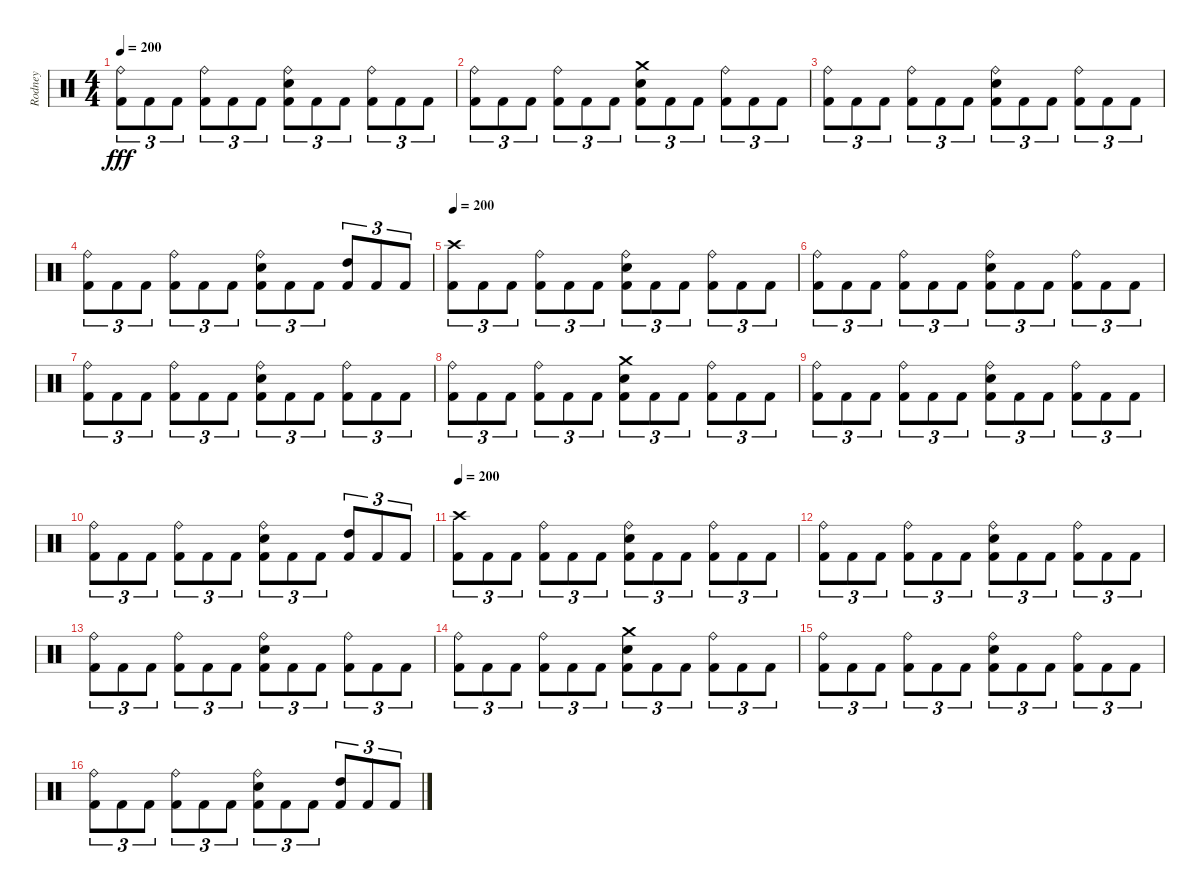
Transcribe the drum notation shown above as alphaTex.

\track ("Rodney" "Rodney") {instrument percussion}
\staff {score}
\articulation defaults
\ts (4 4)
\tempo 200
\clef neutral
\ks c
("Ride (bell)" "Kick (hit) 2").8{tu (3 2) dy fff} "Kick (hit) 2".8{tu (3 2)} "Kick (hit) 2".8{tu (3 2)} ("Ride (bell)" "Kick (hit) 2").8{tu (3 2)} "Kick (hit) 2".8{tu (3 2)} "Kick (hit) 2".8{tu (3 2)} ("Ride (bell)" "Snare (hit) 2" "Kick (hit) 2").8{tu (3 2)} "Kick (hit) 2".8{tu (3 2)} "Kick (hit) 2".8{tu (3 2)} ("Ride (bell)" "Kick (hit) 2").8{tu (3 2)} "Kick (hit) 2".8{tu (3 2)} "Kick (hit) 2".8{tu (3 2)} |
("Ride (bell)" "Kick (hit) 2").8{tu (3 2)} "Kick (hit) 2".8{tu (3 2)} "Kick (hit) 2".8{tu (3 2)} ("Ride (bell)" "Kick (hit) 2").8{tu (3 2)} "Kick (hit) 2".8{tu (3 2)} "Kick (hit) 2".8{tu (3 2)} ("Crash medium (hit)" "Snare (hit) 2" "Kick (hit) 2").8{tu (3 2)} "Kick (hit) 2".8{tu (3 2)} "Kick (hit) 2".8{tu (3 2)} ("Ride (bell)" "Kick (hit) 2").8{tu (3 2)} "Kick (hit) 2".8{tu (3 2)} "Kick (hit) 2".8{tu (3 2)} |
("Ride (bell)" "Kick (hit) 2").8{tu (3 2)} "Kick (hit) 2".8{tu (3 2)} "Kick (hit) 2".8{tu (3 2)} ("Ride (bell)" "Kick (hit) 2").8{tu (3 2)} "Kick (hit) 2".8{tu (3 2)} "Kick (hit) 2".8{tu (3 2)} ("Ride (bell)" "Snare (hit) 2" "Kick (hit) 2").8{tu (3 2)} "Kick (hit) 2".8{tu (3 2)} "Kick (hit) 2".8{tu (3 2)} ("Ride (bell)" "Kick (hit) 2").8{tu (3 2)} "Kick (hit) 2".8{tu (3 2)} "Kick (hit) 2".8{tu (3 2)} |
("Ride (bell)" "Kick (hit) 2").8{tu (3 2)} "Kick (hit) 2".8{tu (3 2)} "Kick (hit) 2".8{tu (3 2)} ("Ride (bell)" "Kick (hit) 2").8{tu (3 2)} "Kick (hit) 2".8{tu (3 2)} "Kick (hit) 2".8{tu (3 2)} ("Ride (bell)" "Snare (hit) 2" "Kick (hit) 2").8{tu (3 2)} "Kick (hit) 2".8{tu (3 2)} "Kick (hit) 2".8{tu (3 2)} ("High Tom (hit)" "Kick (hit) 2").8{tu (3 2)} "Kick (hit) 2".8{tu (3 2)} "Kick (hit) 2".8{tu (3 2)} |
\tempo 200
("Crash high (hit)" "Kick (hit) 2").8{tu (3 2)} "Kick (hit) 2".8{tu (3 2)} "Kick (hit) 2".8{tu (3 2)} ("Ride (bell)" "Kick (hit) 2").8{tu (3 2)} "Kick (hit) 2".8{tu (3 2)} "Kick (hit) 2".8{tu (3 2)} ("Ride (bell)" "Snare (hit) 2" "Kick (hit) 2").8{tu (3 2)} "Kick (hit) 2".8{tu (3 2)} "Kick (hit) 2".8{tu (3 2)} ("Ride (bell)" "Kick (hit) 2").8{tu (3 2)} "Kick (hit) 2".8{tu (3 2)} "Kick (hit) 2".8{tu (3 2)} |
("Ride (bell)" "Kick (hit) 2").8{tu (3 2)} "Kick (hit) 2".8{tu (3 2)} "Kick (hit) 2".8{tu (3 2)} ("Ride (bell)" "Kick (hit) 2").8{tu (3 2)} "Kick (hit) 2".8{tu (3 2)} "Kick (hit) 2".8{tu (3 2)} ("Ride (bell)" "Snare (hit) 2" "Kick (hit) 2").8{tu (3 2)} "Kick (hit) 2".8{tu (3 2)} "Kick (hit) 2".8{tu (3 2)} ("Ride (bell)" "Kick (hit) 2").8{tu (3 2)} "Kick (hit) 2".8{tu (3 2)} "Kick (hit) 2".8{tu (3 2)} |
("Ride (bell)" "Kick (hit) 2").8{tu (3 2)} "Kick (hit) 2".8{tu (3 2)} "Kick (hit) 2".8{tu (3 2)} ("Ride (bell)" "Kick (hit) 2").8{tu (3 2)} "Kick (hit) 2".8{tu (3 2)} "Kick (hit) 2".8{tu (3 2)} ("Ride (bell)" "Snare (hit) 2" "Kick (hit) 2").8{tu (3 2)} "Kick (hit) 2".8{tu (3 2)} "Kick (hit) 2".8{tu (3 2)} ("Ride (bell)" "Kick (hit) 2").8{tu (3 2)} "Kick (hit) 2".8{tu (3 2)} "Kick (hit) 2".8{tu (3 2)} |
("Ride (bell)" "Kick (hit) 2").8{tu (3 2)} "Kick (hit) 2".8{tu (3 2)} "Kick (hit) 2".8{tu (3 2)} ("Ride (bell)" "Kick (hit) 2").8{tu (3 2)} "Kick (hit) 2".8{tu (3 2)} "Kick (hit) 2".8{tu (3 2)} ("Crash medium (hit)" "Snare (hit) 2" "Kick (hit) 2").8{tu (3 2)} "Kick (hit) 2".8{tu (3 2)} "Kick (hit) 2".8{tu (3 2)} ("Ride (bell)" "Kick (hit) 2").8{tu (3 2)} "Kick (hit) 2".8{tu (3 2)} "Kick (hit) 2".8{tu (3 2)} |
("Ride (bell)" "Kick (hit) 2").8{tu (3 2)} "Kick (hit) 2".8{tu (3 2)} "Kick (hit) 2".8{tu (3 2)} ("Ride (bell)" "Kick (hit) 2").8{tu (3 2)} "Kick (hit) 2".8{tu (3 2)} "Kick (hit) 2".8{tu (3 2)} ("Ride (bell)" "Snare (hit) 2" "Kick (hit) 2").8{tu (3 2)} "Kick (hit) 2".8{tu (3 2)} "Kick (hit) 2".8{tu (3 2)} ("Ride (bell)" "Kick (hit) 2").8{tu (3 2)} "Kick (hit) 2".8{tu (3 2)} "Kick (hit) 2".8{tu (3 2)} |
("Ride (bell)" "Kick (hit) 2").8{tu (3 2)} "Kick (hit) 2".8{tu (3 2)} "Kick (hit) 2".8{tu (3 2)} ("Ride (bell)" "Kick (hit) 2").8{tu (3 2)} "Kick (hit) 2".8{tu (3 2)} "Kick (hit) 2".8{tu (3 2)} ("Ride (bell)" "Snare (hit) 2" "Kick (hit) 2").8{tu (3 2)} "Kick (hit) 2".8{tu (3 2)} "Kick (hit) 2".8{tu (3 2)} ("High Tom (hit)" "Kick (hit) 2").8{tu (3 2)} "Kick (hit) 2".8{tu (3 2)} "Kick (hit) 2".8{tu (3 2)} |
\tempo 200
("Crash high (hit)" "Kick (hit) 2").8{tu (3 2)} "Kick (hit) 2".8{tu (3 2)} "Kick (hit) 2".8{tu (3 2)} ("Ride (bell)" "Kick (hit) 2").8{tu (3 2)} "Kick (hit) 2".8{tu (3 2)} "Kick (hit) 2".8{tu (3 2)} ("Ride (bell)" "Snare (hit) 2" "Kick (hit) 2").8{tu (3 2)} "Kick (hit) 2".8{tu (3 2)} "Kick (hit) 2".8{tu (3 2)} ("Ride (bell)" "Kick (hit) 2").8{tu (3 2)} "Kick (hit) 2".8{tu (3 2)} "Kick (hit) 2".8{tu (3 2)} |
("Ride (bell)" "Kick (hit) 2").8{tu (3 2)} "Kick (hit) 2".8{tu (3 2)} "Kick (hit) 2".8{tu (3 2)} ("Ride (bell)" "Kick (hit) 2").8{tu (3 2)} "Kick (hit) 2".8{tu (3 2)} "Kick (hit) 2".8{tu (3 2)} ("Ride (bell)" "Snare (hit) 2" "Kick (hit) 2").8{tu (3 2)} "Kick (hit) 2".8{tu (3 2)} "Kick (hit) 2".8{tu (3 2)} ("Ride (bell)" "Kick (hit) 2").8{tu (3 2)} "Kick (hit) 2".8{tu (3 2)} "Kick (hit) 2".8{tu (3 2)} |
("Ride (bell)" "Kick (hit) 2").8{tu (3 2)} "Kick (hit) 2".8{tu (3 2)} "Kick (hit) 2".8{tu (3 2)} ("Ride (bell)" "Kick (hit) 2").8{tu (3 2)} "Kick (hit) 2".8{tu (3 2)} "Kick (hit) 2".8{tu (3 2)} ("Ride (bell)" "Snare (hit) 2" "Kick (hit) 2").8{tu (3 2)} "Kick (hit) 2".8{tu (3 2)} "Kick (hit) 2".8{tu (3 2)} ("Ride (bell)" "Kick (hit) 2").8{tu (3 2)} "Kick (hit) 2".8{tu (3 2)} "Kick (hit) 2".8{tu (3 2)} |
("Ride (bell)" "Kick (hit) 2").8{tu (3 2)} "Kick (hit) 2".8{tu (3 2)} "Kick (hit) 2".8{tu (3 2)} ("Ride (bell)" "Kick (hit) 2").8{tu (3 2)} "Kick (hit) 2".8{tu (3 2)} "Kick (hit) 2".8{tu (3 2)} ("Crash medium (hit)" "Snare (hit) 2" "Kick (hit) 2").8{tu (3 2)} "Kick (hit) 2".8{tu (3 2)} "Kick (hit) 2".8{tu (3 2)} ("Ride (bell)" "Kick (hit) 2").8{tu (3 2)} "Kick (hit) 2".8{tu (3 2)} "Kick (hit) 2".8{tu (3 2)} |
("Ride (bell)" "Kick (hit) 2").8{tu (3 2)} "Kick (hit) 2".8{tu (3 2)} "Kick (hit) 2".8{tu (3 2)} ("Ride (bell)" "Kick (hit) 2").8{tu (3 2)} "Kick (hit) 2".8{tu (3 2)} "Kick (hit) 2".8{tu (3 2)} ("Ride (bell)" "Snare (hit) 2" "Kick (hit) 2").8{tu (3 2)} "Kick (hit) 2".8{tu (3 2)} "Kick (hit) 2".8{tu (3 2)} ("Ride (bell)" "Kick (hit) 2").8{tu (3 2)} "Kick (hit) 2".8{tu (3 2)} "Kick (hit) 2".8{tu (3 2)} |
("Ride (bell)" "Kick (hit) 2").8{tu (3 2)} "Kick (hit) 2".8{tu (3 2)} "Kick (hit) 2".8{tu (3 2)} ("Ride (bell)" "Kick (hit) 2").8{tu (3 2)} "Kick (hit) 2".8{tu (3 2)} "Kick (hit) 2".8{tu (3 2)} ("Ride (bell)" "Snare (hit) 2" "Kick (hit) 2").8{tu (3 2)} "Kick (hit) 2".8{tu (3 2)} "Kick (hit) 2".8{tu (3 2)} ("High Tom (hit)" "Kick (hit) 2").8{tu (3 2)} "Kick (hit) 2".8{tu (3 2)} "Kick (hit) 2".8{tu (3 2)}
